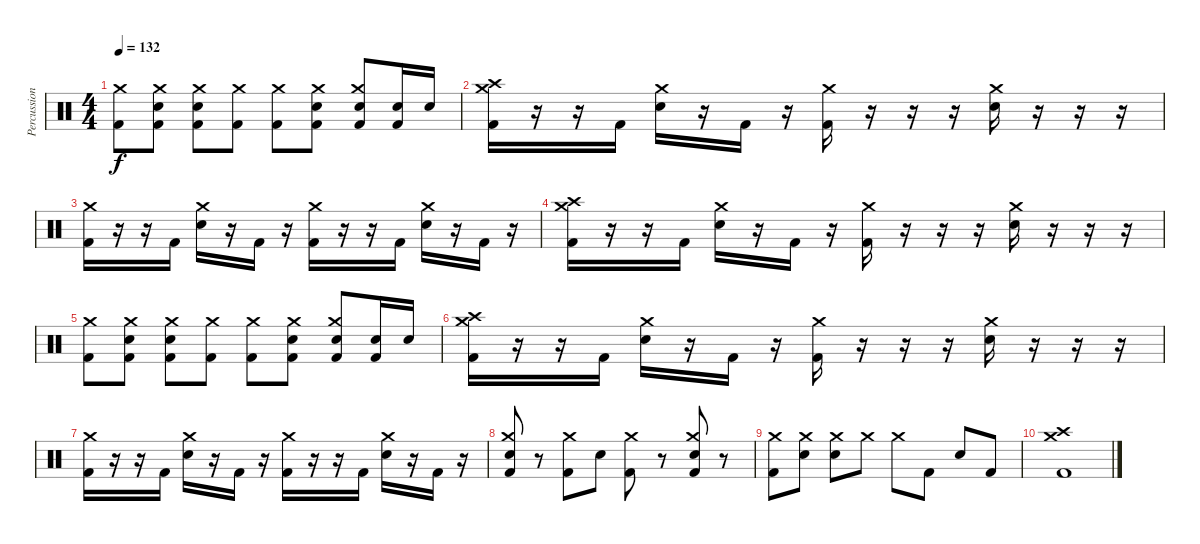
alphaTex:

\track ("Percussion" "Percussion") {instrument percussion}
\staff {score}
\articulation defaults
\ts (4 4)
\tempo 132
\clef neutral
\ks c
("Kick (hit) 2" "Crash medium (hit)").8{dy f} ("Kick (hit) 2" "Snare (hit) 2" "Crash medium (hit)").8 ("Kick (hit) 2" "Snare (hit) 2" "Crash medium (hit)").8 ("Kick (hit) 2" "Crash medium (hit)").8 ("Kick (hit) 2" "Crash medium (hit)").8 ("Kick (hit) 2" "Snare (hit) 2" "Crash medium (hit)").8 ("Kick (hit) 2" "Snare (hit) 2" "Crash medium (hit)").8 ("Kick (hit) 2" "Snare (hit) 2").16 "Snare (hit) 2".16 |
("Kick (hit) 2" "Crash high (hit)" "Crash medium (hit)").16 r.16 r.16 "Kick (hit) 2".16 ("Snare (hit) 2" "Crash medium (hit)").16 r.16 "Kick (hit) 2".16 r.16 ("Kick (hit) 2" "Crash medium (hit)").16 r.16 r.16 r.16 ("Snare (hit) 2" "Crash medium (hit)").16 r.16 r.16 r.16 |
("Kick (hit) 2" "Crash medium (hit)").16 r.16 r.16 "Kick (hit) 2".16 ("Snare (hit) 2" "Crash medium (hit)").16 r.16 "Kick (hit) 2".16 r.16 ("Kick (hit) 2" "Crash medium (hit)").16 r.16 r.16 "Kick (hit) 2".16 ("Snare (hit) 2" "Crash medium (hit)").16 r.16 "Kick (hit) 2".16 r.16 |
("Kick (hit) 2" "Crash high (hit)" "Crash medium (hit)").16 r.16 r.16 "Kick (hit) 2".16 ("Snare (hit) 2" "Crash medium (hit)").16 r.16 "Kick (hit) 2".16 r.16 ("Kick (hit) 2" "Crash medium (hit)").16 r.16 r.16 r.16 ("Snare (hit) 2" "Crash medium (hit)").16 r.16 r.16 r.16 |
("Kick (hit) 2" "Crash medium (hit)").8 ("Kick (hit) 2" "Snare (hit) 2" "Crash medium (hit)").8 ("Kick (hit) 2" "Snare (hit) 2" "Crash medium (hit)").8 ("Kick (hit) 2" "Crash medium (hit)").8 ("Kick (hit) 2" "Crash medium (hit)").8 ("Kick (hit) 2" "Snare (hit) 2" "Crash medium (hit)").8 ("Kick (hit) 2" "Snare (hit) 2" "Crash medium (hit)").8 ("Kick (hit) 2" "Snare (hit) 2").16 "Snare (hit) 2".16 |
("Kick (hit) 2" "Crash high (hit)" "Crash medium (hit)").16 r.16 r.16 "Kick (hit) 2".16 ("Snare (hit) 2" "Crash medium (hit)").16 r.16 "Kick (hit) 2".16 r.16 ("Kick (hit) 2" "Crash medium (hit)").16 r.16 r.16 r.16 ("Snare (hit) 2" "Crash medium (hit)").16 r.16 r.16 r.16 |
("Kick (hit) 2" "Crash medium (hit)").16 r.16 r.16 "Kick (hit) 2".16 ("Snare (hit) 2" "Crash medium (hit)").16 r.16 "Kick (hit) 2".16 r.16 ("Kick (hit) 2" "Crash medium (hit)").16 r.16 r.16 "Kick (hit) 2".16 ("Snare (hit) 2" "Crash medium (hit)").16 r.16 "Kick (hit) 2".16 r.16 |
("Kick (hit) 2" "Snare (hit) 2" "Crash medium (hit)").8 r.8 ("Kick (hit) 2" "Crash medium (hit)").8 "Snare (hit) 2".8 ("Kick (hit) 2" "Crash medium (hit)").8 r.8 ("Kick (hit) 2" "Snare (hit) 2" "Crash medium (hit)").8 r.8 |
("Kick (hit) 2" "Crash medium (hit)").8 ("Snare (hit) 2" "Crash medium (hit)").8 ("Snare (hit) 2" "Crash medium (hit)").8 "Crash medium (hit)".8 "Crash medium (hit)".8 "Kick (hit) 2".8 "Snare (hit) 2".8 "Kick (hit) 2".8 |
("Kick (hit) 2" "Crash high (hit)" "Crash medium (hit)").1
